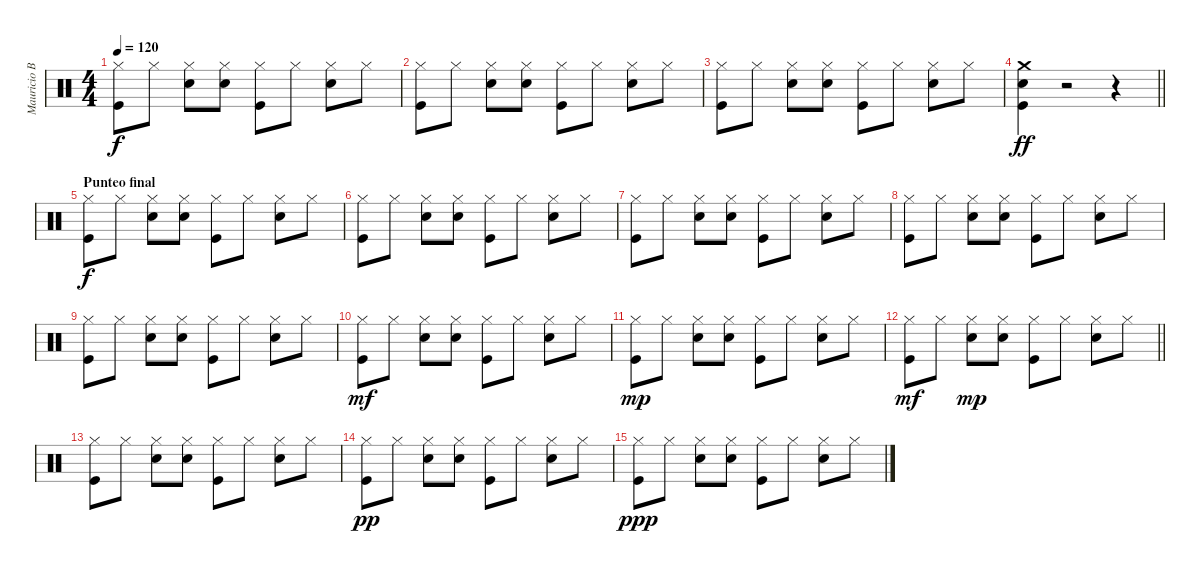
\track ("Mauricio Basualto" "Mauricio B") {instrument percussion}
\staff {score}
\articulation defaults
\ts (4 4)
\tempo 120
\clef neutral
\ks c
("Hi-Hat (closed)" "Kick (hit)").8{dy f} "Hi-Hat (closed)".8 ("Hi-Hat (closed)" "Electric Snare (hit)").8 ("Hi-Hat (closed)" "Electric Snare (hit)").8 ("Hi-Hat (closed)" "Kick (hit)").8 "Hi-Hat (closed)".8 ("Hi-Hat (closed)" "Electric Snare (hit)").8 "Hi-Hat (closed)".8 |
("Hi-Hat (closed)" "Kick (hit)").8 "Hi-Hat (closed)".8 ("Hi-Hat (closed)" "Electric Snare (hit)").8 ("Hi-Hat (closed)" "Electric Snare (hit)").8 ("Hi-Hat (closed)" "Kick (hit)").8 "Hi-Hat (closed)".8 ("Hi-Hat (closed)" "Electric Snare (hit)").8 "Hi-Hat (closed)".8 |
("Hi-Hat (closed)" "Kick (hit)").8 "Hi-Hat (closed)".8 ("Hi-Hat (closed)" "Electric Snare (hit)").8 ("Hi-Hat (closed)" "Electric Snare (hit)").8 ("Hi-Hat (closed)" "Kick (hit)").8 "Hi-Hat (closed)".8 ("Hi-Hat (closed)" "Electric Snare (hit)").8 "Hi-Hat (closed)".8 |
\barLineRight lightlight
("Crash medium (hit)" "Electric Snare (hit)" "Kick (hit)").4{dy ff} r.2 r.4 |
\section ("" "Punteo final")
("Hi-Hat (closed)" "Kick (hit)").8{dy f} "Hi-Hat (closed)".8 ("Hi-Hat (closed)" "Electric Snare (hit)").8 ("Hi-Hat (closed)" "Electric Snare (hit)").8 ("Hi-Hat (closed)" "Kick (hit)").8 "Hi-Hat (closed)".8 ("Hi-Hat (closed)" "Electric Snare (hit)").8 "Hi-Hat (closed)".8 |
("Hi-Hat (closed)" "Kick (hit)").8 "Hi-Hat (closed)".8 ("Hi-Hat (closed)" "Electric Snare (hit)").8 ("Hi-Hat (closed)" "Electric Snare (hit)").8 ("Hi-Hat (closed)" "Kick (hit)").8 "Hi-Hat (closed)".8 ("Hi-Hat (closed)" "Electric Snare (hit)").8 "Hi-Hat (closed)".8 |
("Hi-Hat (closed)" "Kick (hit)").8 "Hi-Hat (closed)".8 ("Hi-Hat (closed)" "Electric Snare (hit)").8 ("Hi-Hat (closed)" "Electric Snare (hit)").8 ("Hi-Hat (closed)" "Kick (hit)").8 "Hi-Hat (closed)".8 ("Hi-Hat (closed)" "Electric Snare (hit)").8 "Hi-Hat (closed)".8 |
("Hi-Hat (closed)" "Kick (hit)").8 "Hi-Hat (closed)".8 ("Hi-Hat (closed)" "Electric Snare (hit)").8 ("Hi-Hat (closed)" "Electric Snare (hit)").8 ("Hi-Hat (closed)" "Kick (hit)").8 "Hi-Hat (closed)".8 ("Hi-Hat (closed)" "Electric Snare (hit)").8 "Hi-Hat (closed)".8 |
("Hi-Hat (closed)" "Kick (hit)").8 "Hi-Hat (closed)".8 ("Hi-Hat (closed)" "Electric Snare (hit)").8 ("Hi-Hat (closed)" "Electric Snare (hit)").8 ("Hi-Hat (closed)" "Kick (hit)").8 "Hi-Hat (closed)".8 ("Hi-Hat (closed)" "Electric Snare (hit)").8 "Hi-Hat (closed)".8 |
("Hi-Hat (closed)" "Kick (hit)").8{dy mf} "Hi-Hat (closed)".8 ("Hi-Hat (closed)" "Electric Snare (hit)").8 ("Hi-Hat (closed)" "Electric Snare (hit)").8 ("Hi-Hat (closed)" "Kick (hit)").8 "Hi-Hat (closed)".8 ("Hi-Hat (closed)" "Electric Snare (hit)").8 "Hi-Hat (closed)".8 |
("Hi-Hat (closed)" "Kick (hit)").8{dy mp} "Hi-Hat (closed)".8 ("Hi-Hat (closed)" "Electric Snare (hit)").8 ("Hi-Hat (closed)" "Electric Snare (hit)").8 ("Hi-Hat (closed)" "Kick (hit)").8 "Hi-Hat (closed)".8 ("Hi-Hat (closed)" "Electric Snare (hit)").8 "Hi-Hat (closed)".8 |
\barLineRight lightlight
("Hi-Hat (closed)" "Kick (hit)").8{dy mf} "Hi-Hat (closed)".8 ("Hi-Hat (closed)" "Electric Snare (hit)").8{dy mp} ("Hi-Hat (closed)" "Electric Snare (hit)").8 ("Hi-Hat (closed)" "Kick (hit)").8 "Hi-Hat (closed)".8 ("Hi-Hat (closed)" "Electric Snare (hit)").8 "Hi-Hat (closed)".8 |
("Hi-Hat (closed)" "Kick (hit)").8 "Hi-Hat (closed)".8 ("Hi-Hat (closed)" "Electric Snare (hit)").8 ("Hi-Hat (closed)" "Electric Snare (hit)").8 ("Hi-Hat (closed)" "Kick (hit)").8 "Hi-Hat (closed)".8 ("Hi-Hat (closed)" "Electric Snare (hit)").8 "Hi-Hat (closed)".8 |
("Hi-Hat (closed)" "Kick (hit)").8{dy pp} "Hi-Hat (closed)".8 ("Hi-Hat (closed)" "Electric Snare (hit)").8 ("Hi-Hat (closed)" "Electric Snare (hit)").8 ("Hi-Hat (closed)" "Kick (hit)").8 "Hi-Hat (closed)".8 ("Hi-Hat (closed)" "Electric Snare (hit)").8 "Hi-Hat (closed)".8 |
("Hi-Hat (closed)" "Kick (hit)").8{dy ppp} "Hi-Hat (closed)".8 ("Hi-Hat (closed)" "Electric Snare (hit)").8 ("Hi-Hat (closed)" "Electric Snare (hit)").8 ("Hi-Hat (closed)" "Kick (hit)").8 "Hi-Hat (closed)".8 ("Hi-Hat (closed)" "Electric Snare (hit)").8 "Hi-Hat (closed)".8
